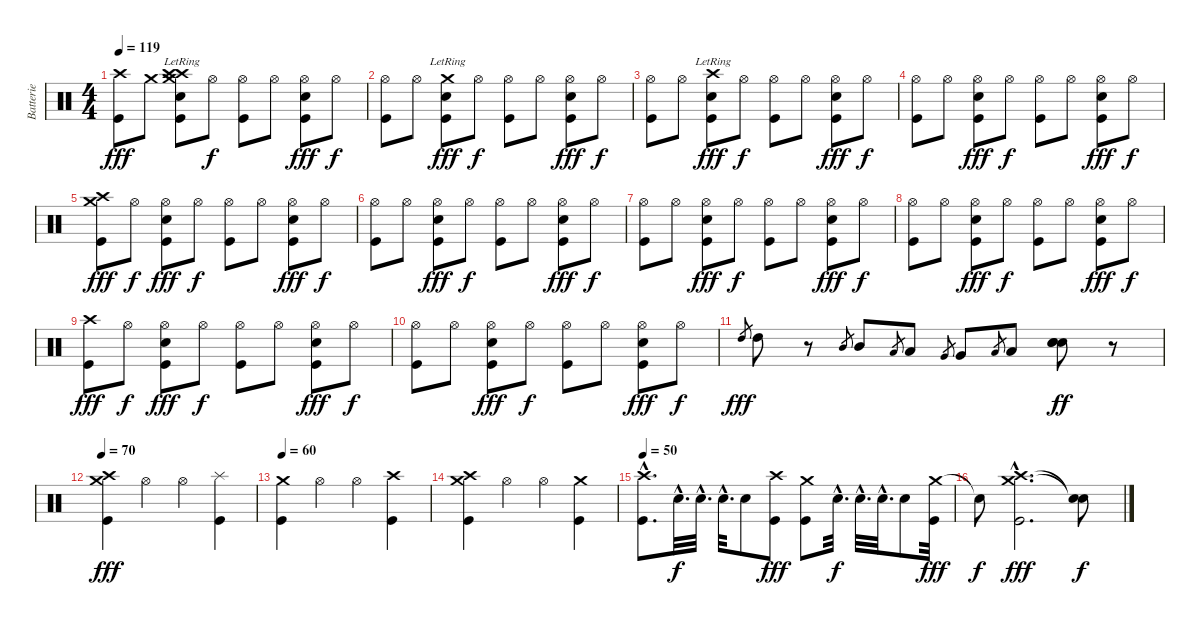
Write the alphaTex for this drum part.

\track ("Batterie" "Batterie") {instrument percussion}
\staff {score}
\articulation defaults
\ts (4 4)
\tempo 119
\clef neutral
\ks c
("Kick (hit)" "Crash high (hit)").8{dy fff} "Crash medium (hit)".8 ("Kick (hit)" "Crash medium (hit)"{lr} "Crash high (hit)"{lr} "Electric Snare (hit)" "Crash high (hit)").8 "Hi-Hat (open)".8{dy f} ("Hi-Hat (open)" "Kick (hit)").8 "Hi-Hat (open)".8 ("Hi-Hat (open)" "Kick (hit)" "Electric Snare (hit)").8{dy fff} "Hi-Hat (open)".8{dy f} |
("Hi-Hat (open)" "Kick (hit)").8 "Hi-Hat (open)".8 ("Kick (hit)" "Crash medium (hit)"{lr} "Electric Snare (hit)").8{dy fff} "Hi-Hat (open)".8{dy f} ("Hi-Hat (open)" "Kick (hit)").8 "Hi-Hat (open)".8 ("Hi-Hat (open)" "Kick (hit)" "Electric Snare (hit)").8{dy fff} "Hi-Hat (open)".8{dy f} |
("Hi-Hat (open)" "Kick (hit)").8 "Hi-Hat (open)".8 ("Kick (hit)" "Crash high (hit)"{lr} "Electric Snare (hit)").8{dy fff} "Hi-Hat (open)".8{dy f} ("Hi-Hat (open)" "Kick (hit)").8 "Hi-Hat (open)".8 ("Hi-Hat (open)" "Kick (hit)" "Electric Snare (hit)").8{dy fff} "Hi-Hat (open)".8{dy f} |
("Hi-Hat (open)" "Kick (hit)").8 "Hi-Hat (open)".8 ("Hi-Hat (open)" "Kick (hit)" "Electric Snare (hit)").8{dy fff} "Hi-Hat (open)".8{dy f} ("Hi-Hat (open)" "Kick (hit)").8 "Hi-Hat (open)".8 ("Hi-Hat (open)" "Kick (hit)" "Electric Snare (hit)").8{dy fff} "Hi-Hat (open)".8{dy f} |
("Kick (hit)" "Crash medium (hit)" "Crash high (hit)").8{dy fff} "Hi-Hat (open)".8{dy f} ("Hi-Hat (open)" "Kick (hit)" "Electric Snare (hit)").8{dy fff} "Hi-Hat (open)".8{dy f} ("Hi-Hat (open)" "Kick (hit)").8 "Hi-Hat (open)".8 ("Hi-Hat (open)" "Kick (hit)" "Electric Snare (hit)").8{dy fff} "Hi-Hat (open)".8{dy f} |
("Hi-Hat (open)" "Kick (hit)").8 "Hi-Hat (open)".8 ("Hi-Hat (open)" "Kick (hit)" "Electric Snare (hit)").8{dy fff} "Hi-Hat (open)".8{dy f} ("Hi-Hat (open)" "Kick (hit)").8 "Hi-Hat (open)".8 ("Hi-Hat (open)" "Kick (hit)" "Electric Snare (hit)").8{dy fff} "Hi-Hat (open)".8{dy f} |
("Hi-Hat (open)" "Kick (hit)").8 "Hi-Hat (open)".8 ("Hi-Hat (open)" "Kick (hit)" "Electric Snare (hit)").8{dy fff} "Hi-Hat (open)".8{dy f} ("Hi-Hat (open)" "Kick (hit)").8 "Hi-Hat (open)".8 ("Hi-Hat (open)" "Kick (hit)" "Electric Snare (hit)").8{dy fff} "Hi-Hat (open)".8{dy f} |
("Hi-Hat (open)" "Kick (hit)").8 "Hi-Hat (open)".8 ("Hi-Hat (open)" "Kick (hit)" "Electric Snare (hit)").8{dy fff} "Hi-Hat (open)".8{dy f} ("Hi-Hat (open)" "Kick (hit)").8 "Hi-Hat (open)".8 ("Hi-Hat (open)" "Kick (hit)" "Electric Snare (hit)").8{dy fff} "Hi-Hat (open)".8{dy f} |
("Kick (hit)" "Crash high (hit)").8{dy fff} "Hi-Hat (open)".8{dy f} ("Hi-Hat (open)" "Kick (hit)" "Electric Snare (hit)").8{dy fff} "Hi-Hat (open)".8{dy f} ("Hi-Hat (open)" "Kick (hit)").8 "Hi-Hat (open)".8 ("Hi-Hat (open)" "Kick (hit)" "Electric Snare (hit)").8{dy fff} "Hi-Hat (open)".8{dy f} |
("Hi-Hat (open)" "Kick (hit)").8 "Hi-Hat (open)".8 ("Hi-Hat (open)" "Kick (hit)" "Electric Snare (hit)").8{dy fff} "Hi-Hat (open)".8{dy f} ("Hi-Hat (open)" "Kick (hit)").8 "Hi-Hat (open)".8 ("Hi-Hat (open)" "Kick (hit)" "Electric Snare (hit)").8{dy fff} "Hi-Hat (open)".8{dy f} |
"High Tom (hit)".8{gr dy fff} "High Tom (hit)".8 r.8 "Mid Tom (hit)".8{gr} "Mid Tom (hit)".8 "Low Tom (hit)".8{gr} "Low Tom (hit)".8 "Very Low Tom (hit)".8{gr} "Very Low Tom (hit)".8 "Low Floor Tom (hit)".8{gr} "Low Floor Tom (hit)".8 ("Electric Snare (hit)" "Electric Snare (hit)" "Electric Snare (hit)").8{dy ff} r.8 |
\tempo 86
\tempo 70
("Crash medium (hit)" "Crash high (hit)" "Kick (hit)").4{dy fff} "Hi-Hat (open)".4 "Hi-Hat (open)".4 ("Splash (hit)" "Kick (hit)").4 |
\tempo 60
("Crash medium (hit)" "Kick (hit)").4 "Hi-Hat (open)".4 "Hi-Hat (open)".4 ("Kick (hit)" "Crash high (hit)").4 |
("Crash high (hit)" "Crash medium (hit)" "Kick (hit)").4 "Hi-Hat (open)".4 "Hi-Hat (open)".4 ("Crash medium (hit)" "Kick (hit)").4 |
\tempo 50
("Crash high (hit)"{hac} "Kick (hit)"{hac}).8{d} "Electric Snare (hit)"{hac}.32{d dy f} "Electric Snare (hit)"{hac}.32{d} "Electric Snare (hit)"{hac}.32{d} "Electric Snare (hit)".8 ("Crash high (hit)" "Kick (hit)").8{dy fff} ("Crash medium (hit)" "Kick (hit)").8 "Electric Snare (hit)"{hac}.32{d dy f} "Electric Snare (hit)"{hac}.32{d} "Electric Snare (hit)"{hac}.32{d} "Electric Snare (hit)".8 ("Crash medium (hit)" "Kick (hit)").32{dy fff} |
"Snare (hit)"{t}.8{dy f} ("Crash high (hit)"{hac} "Crash medium (hit)"{hac} "Kick (hit)"{hac}).2{d dy fff} ("Snare (hit)"{t} "Snare (hit)"{t}).8{dy f}
